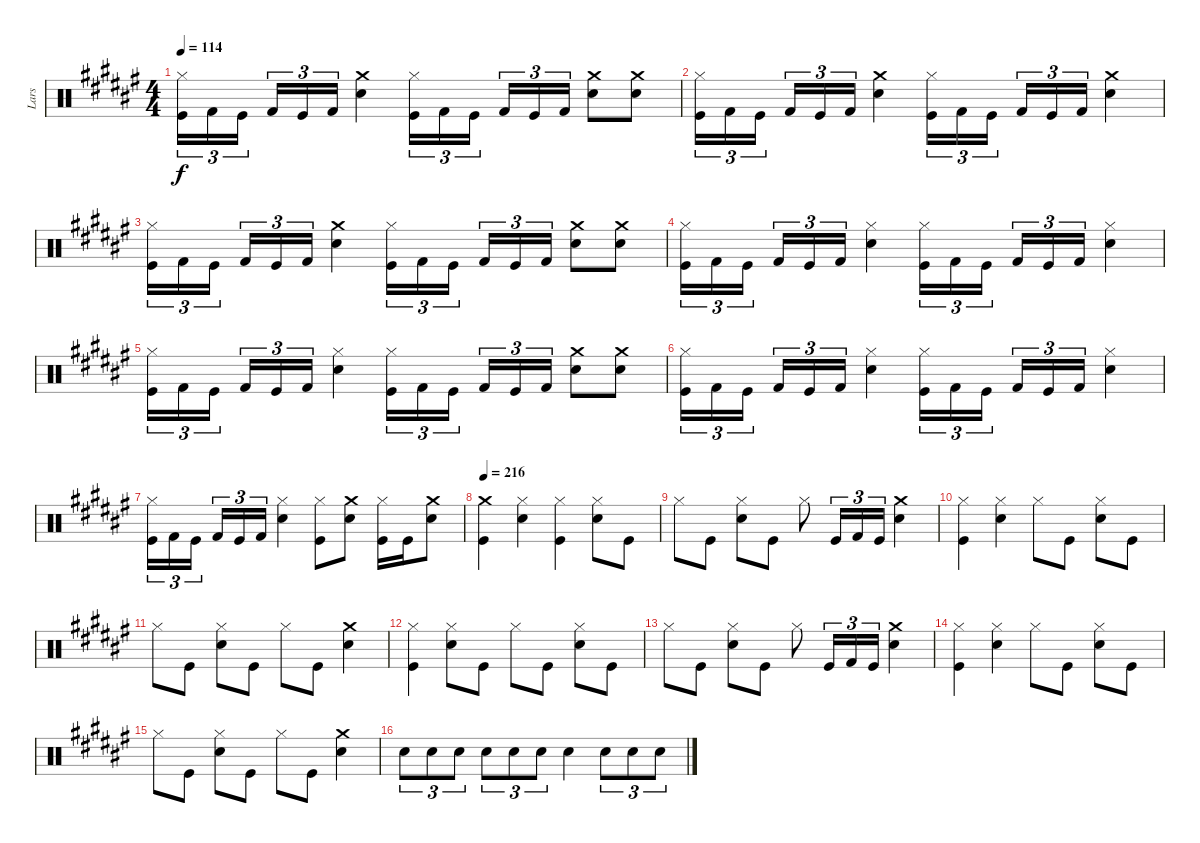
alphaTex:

\track ("Lars" "Lars") {instrument percussion}
\staff {score}
\articulation defaults
\ts (4 4)
\tempo 114
\clef neutral
\ks f#
("Hi-Hat (closed)" "Kick (hit)").16{tu (3 2) dy f} "Kick (hit) 2".16{tu (3 2)} "Kick (hit)".16{tu (3 2) beam splitsecondary} "Kick (hit) 2".16{tu (3 2)} "Kick (hit)".16{tu (3 2)} "Kick (hit) 2".16{tu (3 2)} ("Crash medium (hit)" "Snare (hit) 2").4 ("Hi-Hat (closed)" "Kick (hit)").16{tu (3 2)} "Kick (hit) 2".16{tu (3 2)} "Kick (hit)".16{tu (3 2) beam splitsecondary} "Kick (hit) 2".16{tu (3 2)} "Kick (hit)".16{tu (3 2)} "Kick (hit) 2".16{tu (3 2)} ("Snare (hit) 2" "Crash medium (hit)").8 ("Snare (hit) 2" "Crash medium (hit)").8 |
("Hi-Hat (closed)" "Kick (hit)").16{tu (3 2)} "Kick (hit) 2".16{tu (3 2)} "Kick (hit)".16{tu (3 2) beam splitsecondary} "Kick (hit) 2".16{tu (3 2)} "Kick (hit)".16{tu (3 2)} "Kick (hit) 2".16{tu (3 2)} ("Crash medium (hit)" "Snare (hit) 2").4 ("Hi-Hat (closed)" "Kick (hit)").16{tu (3 2)} "Kick (hit) 2".16{tu (3 2)} "Kick (hit)".16{tu (3 2) beam splitsecondary} "Kick (hit) 2".16{tu (3 2)} "Kick (hit)".16{tu (3 2)} "Kick (hit) 2".16{tu (3 2)} ("Crash medium (hit)" "Snare (hit) 2").4 |
("Hi-Hat (closed)" "Kick (hit)").16{tu (3 2)} "Kick (hit) 2".16{tu (3 2)} "Kick (hit)".16{tu (3 2) beam splitsecondary} "Kick (hit) 2".16{tu (3 2)} "Kick (hit)".16{tu (3 2)} "Kick (hit) 2".16{tu (3 2)} ("Crash medium (hit)" "Snare (hit) 2").4 ("Hi-Hat (closed)" "Kick (hit)").16{tu (3 2)} "Kick (hit) 2".16{tu (3 2)} "Kick (hit)".16{tu (3 2) beam splitsecondary} "Kick (hit) 2".16{tu (3 2)} "Kick (hit)".16{tu (3 2)} "Kick (hit) 2".16{tu (3 2)} ("Snare (hit) 2" "Crash medium (hit)").8 ("Snare (hit) 2" "Crash medium (hit)").8 |
("Hi-Hat (closed)" "Kick (hit)").16{tu (3 2)} "Kick (hit) 2".16{tu (3 2)} "Kick (hit)".16{tu (3 2) beam splitsecondary} "Kick (hit) 2".16{tu (3 2)} "Kick (hit)".16{tu (3 2)} "Kick (hit) 2".16{tu (3 2)} ("Snare (hit) 2" "Hi-Hat (closed)").4 ("Hi-Hat (closed)" "Kick (hit)").16{tu (3 2)} "Kick (hit) 2".16{tu (3 2)} "Kick (hit)".16{tu (3 2) beam splitsecondary} "Kick (hit) 2".16{tu (3 2)} "Kick (hit)".16{tu (3 2)} "Kick (hit) 2".16{tu (3 2)} ("Snare (hit) 2" "Hi-Hat (closed)").4 |
("Hi-Hat (closed)" "Kick (hit)").16{tu (3 2)} "Kick (hit) 2".16{tu (3 2)} "Kick (hit)".16{tu (3 2) beam splitsecondary} "Kick (hit) 2".16{tu (3 2)} "Kick (hit)".16{tu (3 2)} "Kick (hit) 2".16{tu (3 2)} ("Snare (hit) 2" "Hi-Hat (closed)").4 ("Hi-Hat (closed)" "Kick (hit)").16{tu (3 2)} "Kick (hit) 2".16{tu (3 2)} "Kick (hit)".16{tu (3 2) beam splitsecondary} "Kick (hit) 2".16{tu (3 2)} "Kick (hit)".16{tu (3 2)} "Kick (hit) 2".16{tu (3 2)} ("Snare (hit) 2" "Crash medium (hit)").8 ("Snare (hit) 2" "Crash medium (hit)").8 |
("Hi-Hat (closed)" "Kick (hit)").16{tu (3 2)} "Kick (hit) 2".16{tu (3 2)} "Kick (hit)".16{tu (3 2) beam splitsecondary} "Kick (hit) 2".16{tu (3 2)} "Kick (hit)".16{tu (3 2)} "Kick (hit) 2".16{tu (3 2)} ("Snare (hit) 2" "Hi-Hat (closed)").4 ("Hi-Hat (closed)" "Kick (hit)").16{tu (3 2)} "Kick (hit) 2".16{tu (3 2)} "Kick (hit)".16{tu (3 2) beam splitsecondary} "Kick (hit) 2".16{tu (3 2)} "Kick (hit)".16{tu (3 2)} "Kick (hit) 2".16{tu (3 2)} ("Snare (hit) 2" "Hi-Hat (closed)").4 |
("Hi-Hat (closed)" "Kick (hit)").16{tu (3 2)} "Kick (hit) 2".16{tu (3 2)} "Kick (hit)".16{tu (3 2) beam splitsecondary} "Kick (hit) 2".16{tu (3 2)} "Kick (hit)".16{tu (3 2)} "Kick (hit) 2".16{tu (3 2)} ("Snare (hit) 2" "Hi-Hat (closed)").4 ("Kick (hit)" "Hi-Hat (closed)").8 ("Snare (hit) 2" "Crash medium (hit)").8 ("Kick (hit)" "Hi-Hat (closed)").16 "Kick (hit)".16 ("Crash medium (hit)" "Snare (hit) 2").8 |
\tempo 225
\tempo 216
("Kick (hit)" "Crash medium (hit)").4 ("Hi-Hat (closed)" "Snare (hit) 2").4 ("Kick (hit)" "Hi-Hat (closed)").4 ("Hi-Hat (closed)" "Snare (hit) 2").8 "Kick (hit)".8 |
"Hi-Hat (closed)".8 "Kick (hit)".8 ("Snare (hit) 2" "Hi-Hat (closed)").8 "Kick (hit)".8 "Hi-Hat (closed)".8 "Kick (hit)".16{tu (3 2)} "Kick (hit) 2".16{tu (3 2)} "Kick (hit)".16{tu (3 2)} ("Crash medium (hit)" "Snare (hit) 2").4 |
("Hi-Hat (closed)" "Kick (hit)").4 ("Snare (hit) 2" "Hi-Hat (closed)").4 "Hi-Hat (closed)".8 "Kick (hit)".8 ("Snare (hit) 2" "Hi-Hat (closed)").8 "Kick (hit)".8 |
"Hi-Hat (closed)".8 "Kick (hit)".8 ("Snare (hit) 2" "Hi-Hat (closed)").8 "Kick (hit)".8 "Hi-Hat (closed)".8 "Kick (hit)".8 ("Crash medium (hit)" "Snare (hit) 2").4 |
("Kick (hit)" "Hi-Hat (closed)").4 ("Snare (hit) 2" "Hi-Hat (closed)").8 "Kick (hit)".8 "Hi-Hat (closed)".8 "Kick (hit)".8 ("Hi-Hat (closed)" "Snare (hit) 2").8 "Kick (hit)".8 |
"Hi-Hat (closed)".8 "Kick (hit)".8 ("Snare (hit) 2" "Hi-Hat (closed)").8 "Kick (hit)".8 "Hi-Hat (closed)".8 "Kick (hit)".16{tu (3 2)} "Kick (hit) 2".16{tu (3 2)} "Kick (hit)".16{tu (3 2)} ("Crash medium (hit)" "Snare (hit) 2").4 |
("Hi-Hat (closed)" "Kick (hit)").4 ("Snare (hit) 2" "Hi-Hat (closed)").4 "Hi-Hat (closed)".8 "Kick (hit)".8 ("Snare (hit) 2" "Hi-Hat (closed)").8 "Kick (hit)".8 |
"Hi-Hat (closed)".8 "Kick (hit)".8 ("Snare (hit) 2" "Hi-Hat (closed)").8 "Kick (hit)".8 "Hi-Hat (closed)".8 "Kick (hit)".8 ("Crash medium (hit)" "Snare (hit) 2").4 |
"Snare (hit) 2".8{tu (3 2)} "Snare (hit) 2".8{tu (3 2)} "Snare (hit) 2".8{tu (3 2)} "Snare (hit) 2".8{tu (3 2)} "Snare (hit) 2".8{tu (3 2)} "Snare (hit) 2".8{tu (3 2)} "Snare (hit) 2".4 "Snare (hit) 2".8{tu (3 2)} "Snare (hit) 2".8{tu (3 2)} "Snare (hit) 2".8{tu (3 2)}
